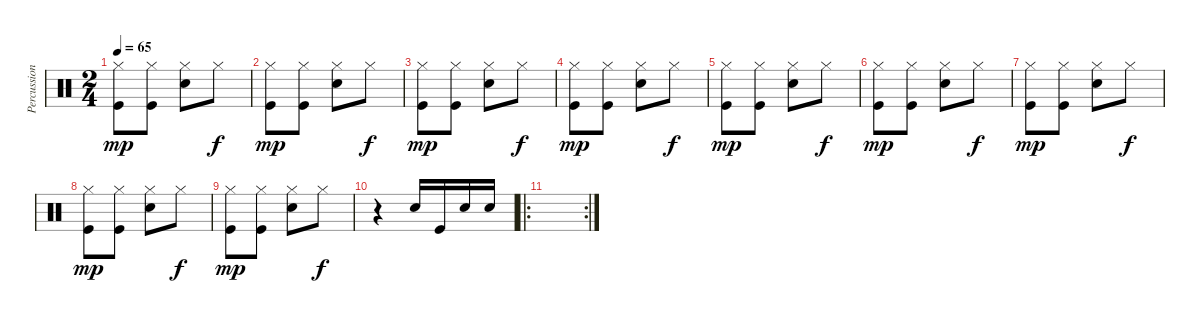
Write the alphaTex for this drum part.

\track ("Percussions" "Percussion") {instrument percussion}
\staff {score}
\articulation defaults
\ts (2 4)
\tempo 65
\clef neutral
\ks c
("Hi-Hat (closed)" "Kick (hit)").8{dy mp} ("Hi-Hat (closed)" "Kick (hit)").8 ("Hi-Hat (closed)" "Electric Snare (hit)").8 "Hi-Hat (closed)".8{dy f} |
("Hi-Hat (closed)" "Kick (hit)").8{dy mp} ("Hi-Hat (closed)" "Kick (hit)").8 ("Hi-Hat (closed)" "Electric Snare (hit)").8 "Hi-Hat (closed)".8{dy f} |
("Hi-Hat (closed)" "Kick (hit)").8{dy mp} ("Hi-Hat (closed)" "Kick (hit)").8 ("Hi-Hat (closed)" "Electric Snare (hit)").8 "Hi-Hat (closed)".8{dy f} |
("Hi-Hat (closed)" "Kick (hit)").8{dy mp} ("Hi-Hat (closed)" "Kick (hit)").8 ("Hi-Hat (closed)" "Electric Snare (hit)").8 "Hi-Hat (closed)".8{dy f} |
("Hi-Hat (closed)" "Kick (hit)").8{dy mp} ("Hi-Hat (closed)" "Kick (hit)").8 ("Hi-Hat (closed)" "Electric Snare (hit)").8 "Hi-Hat (closed)".8{dy f} |
("Hi-Hat (closed)" "Kick (hit)").8{dy mp} ("Hi-Hat (closed)" "Kick (hit)").8 ("Hi-Hat (closed)" "Electric Snare (hit)").8 "Hi-Hat (closed)".8{dy f} |
("Hi-Hat (closed)" "Kick (hit)").8{dy mp} ("Hi-Hat (closed)" "Kick (hit)").8 ("Hi-Hat (closed)" "Electric Snare (hit)").8 "Hi-Hat (closed)".8{dy f} |
("Hi-Hat (closed)" "Kick (hit)").8{dy mp} ("Hi-Hat (closed)" "Kick (hit)").8 ("Hi-Hat (closed)" "Electric Snare (hit)").8 "Hi-Hat (closed)".8{dy f} |
("Hi-Hat (closed)" "Kick (hit)").8{dy mp} ("Hi-Hat (closed)" "Kick (hit)").8 ("Hi-Hat (closed)" "Electric Snare (hit)").8 "Hi-Hat (closed)".8{dy f} |
r.4 "Electric Snare (hit)".16 "Kick (hit)".16 "Electric Snare (hit)".16 "Electric Snare (hit)".16 |
\ro
\rc 2
